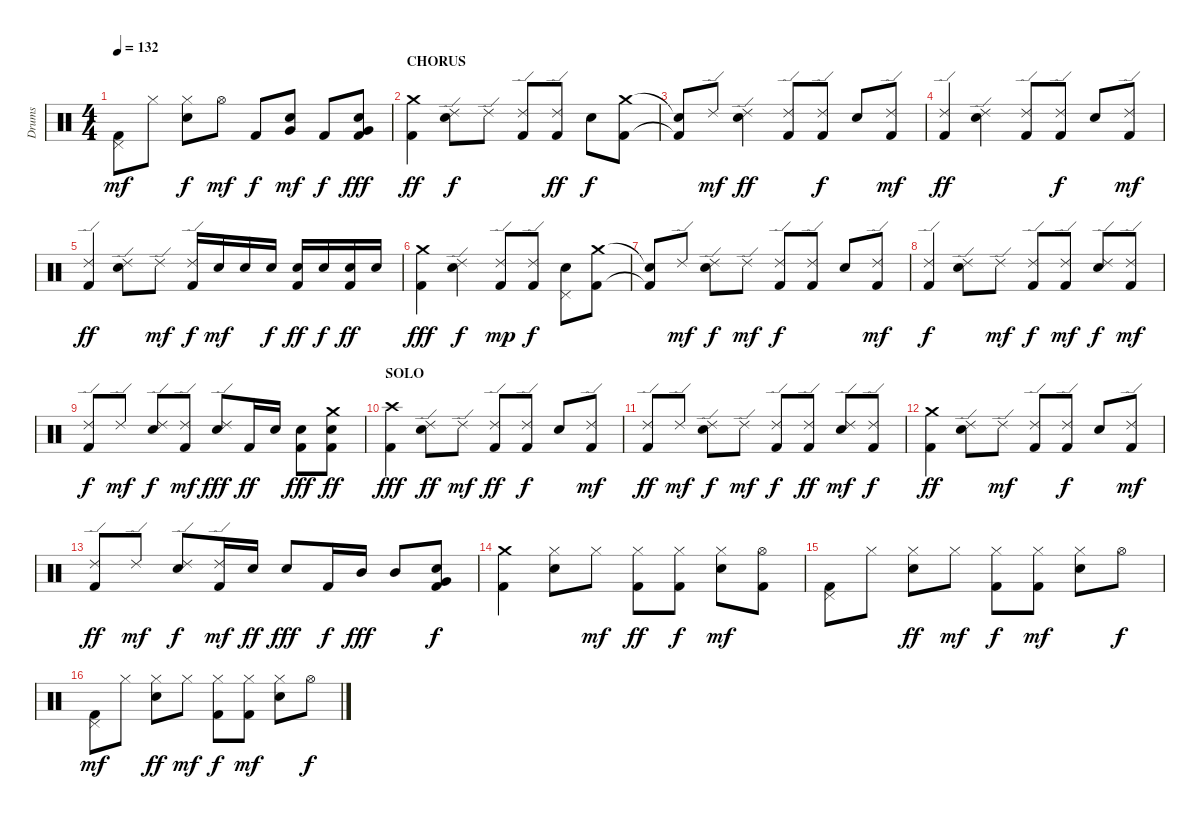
\track ("Drums" "Drums") {instrument percussion}
\staff {score}
\articulation defaults
\ts (4 4)
\tempo 132
\clef neutral
\ks c
("Pedal Hi-Hat (hit)" "Kick (hit) 2").8{dy mf} "Hi-Hat (closed)".8 ("Hi-Hat (closed)" "Electric Snare (hit)").8{dy f} "Hi-Hat (open)".8{dy mf} "Kick (hit) 2".8{dy f} ("Electric Snare (hit)" "Very Low Tom (hit)").8{dy mf} "Kick (hit) 2".8{dy f} ("Electric Snare (hit)" "Very Low Tom (hit)" "Kick (hit) 2").8{dy fff} |
\section ("" "CHORUS")
("Crash medium (hit)" "Kick (hit) 2").4{dy ff} ("Ride (edge) 2" "Electric Snare (hit)").8{dy f} "Ride (edge) 2".8 ("Ride (edge) 2" "Kick (hit) 2").8 ("Ride (edge) 2" "Kick (hit) 2").8{dy ff} "Electric Snare (hit)".8{dy f} ("Crash medium (hit)" "Kick (hit) 2").8 |
("Snare (hit)"{t} "Kick (hit) 2"{t}).8 "Ride (edge) 2".8{dy mf} ("Ride (edge) 2" "Electric Snare (hit)").4{dy ff} ("Ride (edge) 2" "Kick (hit) 2").8 ("Ride (edge) 2" "Kick (hit) 2").8{dy f} "Electric Snare (hit)".8 ("Ride (edge) 2" "Kick (hit) 2").8{dy mf} |
("Ride (edge) 2" "Kick (hit) 2").4{dy ff} ("Ride (edge) 2" "Electric Snare (hit)").4 ("Ride (edge) 2" "Kick (hit) 2").8 ("Ride (edge) 2" "Kick (hit) 2").8{dy f} "Electric Snare (hit)".8 ("Ride (edge) 2" "Kick (hit) 2").8{dy mf} |
("Ride (edge) 2" "Kick (hit) 2").4{dy ff} ("Ride (edge) 2" "Electric Snare (hit)").8 "Ride (edge) 2".8{dy mf} ("Ride (edge) 2" "Kick (hit) 2").16{dy f} "Electric Snare (hit)".16{dy mf} "Electric Snare (hit)".16 "Electric Snare (hit)".16{dy f} ("Electric Snare (hit)" "Kick (hit) 2").16{dy ff} "Electric Snare (hit)".16{dy f} ("Electric Snare (hit)" "Kick (hit) 2").16{dy ff} "Electric Snare (hit)".16 |
("Crash medium (hit)" "Kick (hit) 2").4{dy fff} ("Ride (edge) 2" "Electric Snare (hit)").4{dy f} ("Ride (edge) 2" "Kick (hit) 2").8{dy mp} ("Ride (edge) 2" "Kick (hit) 2").8{dy f} ("Electric Snare (hit)" "Pedal Hi-Hat (hit)").8 ("Crash medium (hit)" "Kick (hit) 2").8 |
("Snare (hit)"{t} "Kick (hit) 2"{t}).8 "Ride (edge) 2".8{dy mf} ("Ride (edge) 2" "Electric Snare (hit)").8{dy f} "Ride (edge) 2".8{dy mf} ("Ride (edge) 2" "Kick (hit) 2").8{dy f} ("Ride (edge) 2" "Kick (hit) 2").8 "Electric Snare (hit)".8 ("Ride (edge) 2" "Kick (hit) 2").8{dy mf} |
("Ride (edge) 2" "Kick (hit) 2").4{dy f} ("Ride (edge) 2" "Electric Snare (hit)").8 "Ride (edge) 2".8{dy mf} ("Ride (edge) 2" "Kick (hit) 2").8{dy f} ("Ride (edge) 2" "Kick (hit) 2").8{dy mf} ("Ride (edge) 2" "Electric Snare (hit)").8{dy f} ("Ride (edge) 2" "Kick (hit) 2").8{dy mf} |
("Ride (edge) 2" "Kick (hit) 2").8{dy f} "Ride (edge) 2".8{dy mf} ("Ride (edge) 2" "Electric Snare (hit)").8{dy f} ("Ride (edge) 2" "Kick (hit) 2").8{dy mf} ("Ride (edge) 2" "Electric Snare (hit)").8{dy fff} "Kick (hit) 2".16{dy ff} "Electric Snare (hit)".16 ("Electric Snare (hit)" "Kick (hit) 2").8{dy fff} ("Crash medium (hit)" "Electric Snare (hit)" "Kick (hit) 2").8{dy ff} |
\section ("" "SOLO ")
("Crash high (hit)" "Kick (hit) 2").4{dy fff} ("Ride (edge) 2" "Electric Snare (hit)").8{dy ff} "Ride (edge) 2".8{dy mf} ("Ride (edge) 2" "Kick (hit) 2").8{dy ff} ("Ride (edge) 2" "Kick (hit) 2").8{dy f} "Electric Snare (hit)".8 ("Ride (edge) 2" "Kick (hit) 2").8{dy mf} |
("Ride (edge) 2" "Kick (hit) 2").8{dy ff} "Ride (edge) 2".8{dy mf} ("Ride (edge) 2" "Electric Snare (hit)").8{dy f} "Ride (edge) 2".8{dy mf} ("Ride (edge) 2" "Kick (hit) 2").8{dy f} ("Ride (edge) 2" "Kick (hit) 2").8{dy ff} ("Ride (edge) 2" "Electric Snare (hit)").8{dy mf} ("Ride (edge) 2" "Kick (hit) 2").8{dy f} |
("Crash medium (hit)" "Kick (hit) 2").4{dy ff} ("Ride (edge) 2" "Electric Snare (hit)").8 "Ride (edge) 2".8{dy mf} ("Ride (edge) 2" "Kick (hit) 2").8 ("Ride (edge) 2" "Kick (hit) 2").8{dy f} "Electric Snare (hit)".8 ("Ride (edge) 2" "Kick (hit) 2").8{dy mf} |
("Ride (edge) 2" "Kick (hit) 2").8{dy ff} "Ride (edge) 2".8{dy mf} ("Ride (edge) 2" "Electric Snare (hit)").8{dy f} ("Ride (edge) 2" "Kick (hit) 2").16{dy mf} "Electric Snare (hit)".16{dy ff} "Electric Snare (hit)".8{dy fff} "Kick (hit) 2".16{dy f} "Mid Tom (hit)".16{dy fff} "Mid Tom (hit)".8 ("Electric Snare (hit)" "Very Low Tom (hit)" "Kick (hit) 2").8{dy f} |
("Crash medium (hit)" "Kick (hit) 2").4 ("Hi-Hat (closed)" "Electric Snare (hit)").8 "Hi-Hat (closed)".8{dy mf} ("Hi-Hat (closed)" "Kick (hit) 2").8{dy ff} ("Hi-Hat (closed)" "Kick (hit) 2").8{dy f} ("Hi-Hat (closed)" "Electric Snare (hit)").8{dy mf} ("Hi-Hat (open)" "Kick (hit) 2").8 |
("Pedal Hi-Hat (hit)" "Kick (hit) 2").8 "Hi-Hat (closed)".8 ("Hi-Hat (closed)" "Electric Snare (hit)").8{dy ff} "Hi-Hat (closed)".8{dy mf} ("Hi-Hat (closed)" "Kick (hit) 2").8{dy f} ("Hi-Hat (closed)" "Kick (hit) 2").8{dy mf} ("Hi-Hat (closed)" "Electric Snare (hit)").8 "Hi-Hat (open)".8{dy f} |
("Pedal Hi-Hat (hit)" "Kick (hit) 2").8{dy mf} "Hi-Hat (closed)".8 ("Hi-Hat (closed)" "Electric Snare (hit)").8{dy ff} "Hi-Hat (closed)".8{dy mf} ("Hi-Hat (closed)" "Kick (hit) 2").8{dy f} ("Hi-Hat (closed)" "Kick (hit) 2").8{dy mf} ("Hi-Hat (closed)" "Electric Snare (hit)").8 "Hi-Hat (open)".8{dy f}
